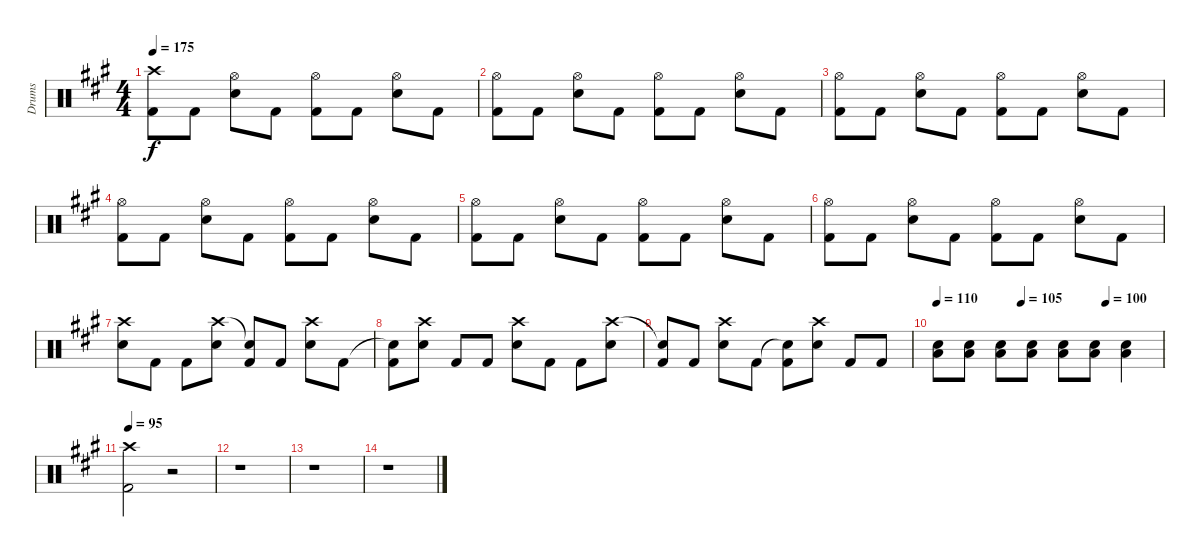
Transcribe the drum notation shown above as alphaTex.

\track ("Drums" "Drums") {instrument percussion}
\staff {score}
\articulation defaults
\ts (4 4)
\tempo 175
\clef neutral
\ks a
("Crash high (hit)" "Kick (hit) 2").8{dy f} "Kick (hit) 2".8 ("Hi-Hat (open)" "Snare (hit) 2").8 "Kick (hit) 2".8 ("Hi-Hat (open)" "Kick (hit) 2").8 "Kick (hit) 2".8 ("Hi-Hat (open)" "Snare (hit) 2").8 "Kick (hit) 2".8 |
("Hi-Hat (open)" "Kick (hit) 2").8 "Kick (hit) 2".8 ("Hi-Hat (open)" "Snare (hit) 2").8 "Kick (hit) 2".8 ("Hi-Hat (open)" "Kick (hit) 2").8 "Kick (hit) 2".8 ("Hi-Hat (open)" "Snare (hit) 2").8 "Kick (hit) 2".8 |
("Hi-Hat (open)" "Kick (hit) 2").8 "Kick (hit) 2".8 ("Hi-Hat (open)" "Snare (hit) 2").8 "Kick (hit) 2".8 ("Hi-Hat (open)" "Kick (hit) 2").8 "Kick (hit) 2".8 ("Hi-Hat (open)" "Snare (hit) 2").8 "Kick (hit) 2".8 |
("Hi-Hat (open)" "Kick (hit) 2").8 "Kick (hit) 2".8 ("Hi-Hat (open)" "Snare (hit) 2").8 "Kick (hit) 2".8 ("Hi-Hat (open)" "Kick (hit) 2").8 "Kick (hit) 2".8 ("Hi-Hat (open)" "Snare (hit) 2").8 "Kick (hit) 2".8 |
("Hi-Hat (open)" "Kick (hit) 2").8 "Kick (hit) 2".8 ("Hi-Hat (open)" "Snare (hit) 2").8 "Kick (hit) 2".8 ("Hi-Hat (open)" "Kick (hit) 2").8 "Kick (hit) 2".8 ("Hi-Hat (open)" "Snare (hit) 2").8 "Kick (hit) 2".8 |
("Hi-Hat (open)" "Kick (hit) 2").8 "Kick (hit) 2".8 ("Hi-Hat (open)" "Snare (hit) 2").8 "Kick (hit) 2".8 ("Hi-Hat (open)" "Kick (hit) 2").8 "Kick (hit) 2".8 ("Hi-Hat (open)" "Snare (hit) 2").8 "Kick (hit) 2".8 |
("Crash high (hit)" "Snare (hit) 2").8 "Kick (hit) 2".8 "Kick (hit) 2".8 ("Crash high (hit)" "Snare (hit) 2").8 ("Snare (hit)"{t} "Kick (hit) 2").8 "Kick (hit) 2".8 ("Crash high (hit)" "Snare (hit) 2").8 "Kick (hit) 2".8 |
("Snare (hit)"{t} "Kick (hit) 2").8 ("Crash high (hit)" "Snare (hit) 2").8 "Kick (hit) 2".8 "Kick (hit) 2".8 ("Crash high (hit)" "Snare (hit) 2").8 "Kick (hit) 2".8 "Kick (hit) 2".8 ("Crash high (hit)" "Snare (hit) 2").8 |
("Snare (hit)"{t} "Kick (hit) 2").8 "Kick (hit) 2".8 ("Crash high (hit)" "Snare (hit) 2").8 "Kick (hit) 2".8 ("Snare (hit)"{t} "Kick (hit) 2").8 ("Crash high (hit)" "Snare (hit) 2").8 "Kick (hit) 2".8 "Kick (hit) 2".8 |
\tempo 110
\tempo (105 0.375)
\tempo (100 0.75)
("Snare (hit) 2" "Low Floor Tom (hit)").8 ("Snare (hit) 2" "Low Floor Tom (hit)").8 ("Snare (hit) 2" "Low Floor Tom (hit)").8 ("Snare (hit) 2" "Low Floor Tom (hit)").8 ("Snare (hit) 2" "Low Floor Tom (hit)").8 ("Snare (hit) 2" "Low Floor Tom (hit)").8 ("Snare (hit) 2" "Low Floor Tom (hit)").4 |
\tempo 95
("Crash high (hit)" "Kick (hit) 2").2 r.2 |
r.1 |
r.1 |
r.1
